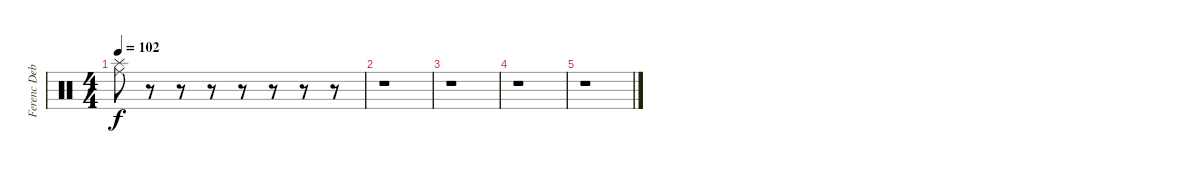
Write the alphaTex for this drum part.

\track ("Ferenc Debreczeni - drums" "Ferenc Deb") {instrument percussion}
\staff {score}
\articulation defaults
\ts (4 4)
\tempo 102
\clef neutral
\ks c
("Splash (hit)" "Ride (middle)").8{dy f} r.8 r.8 r.8 r.8 r.8 r.8 r.8 |
r.1 |
r.1 |
r.1 |
r.1
